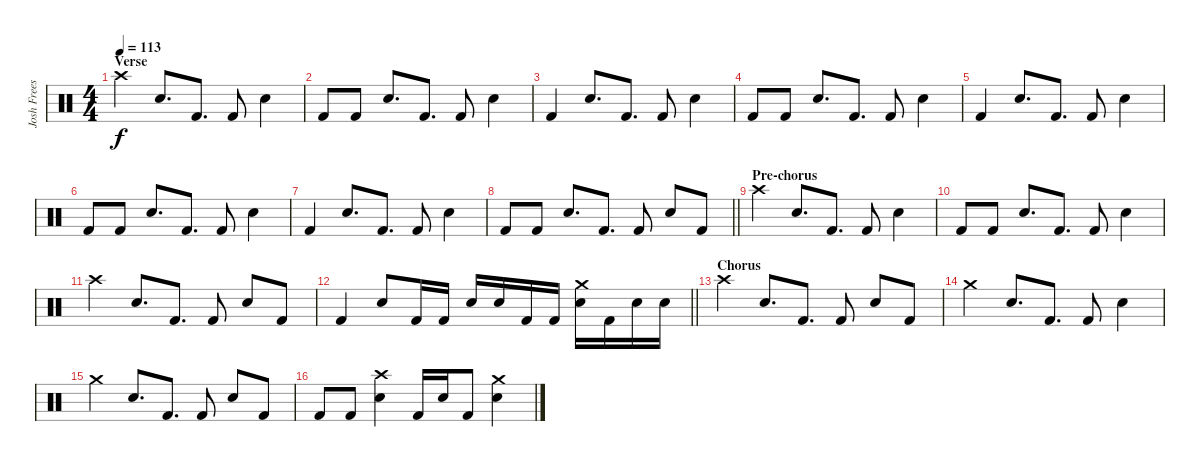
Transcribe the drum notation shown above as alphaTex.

\track ("Josh Freese (Studio Drummer)" "Josh Frees") {instrument percussion}
\staff {score}
\articulation defaults
\ts (4 4)
\section ("" "Verse")
\tempo 113
\clef neutral
\ks c "Crash high (hit)".4{dy f} "Electric Snare (hit)".8{d} "Kick (hit) 2".8{d} "Kick (hit) 2".8 "Electric Snare (hit)".4
|
"Kick (hit) 2".8 "Kick (hit) 2".8 "Electric Snare (hit)".8{d} "Kick (hit) 2".8{d} "Kick (hit) 2".8 "Electric Snare (hit)".4 |
"Kick (hit) 2".4 "Electric Snare (hit)".8{d} "Kick (hit) 2".8{d} "Kick (hit) 2".8 "Electric Snare (hit)".4 |
"Kick (hit) 2".8 "Kick (hit) 2".8 "Electric Snare (hit)".8{d} "Kick (hit) 2".8{d} "Kick (hit) 2".8 "Electric Snare (hit)".4 |
"Kick (hit) 2".4 "Electric Snare (hit)".8{d} "Kick (hit) 2".8{d} "Kick (hit) 2".8 "Electric Snare (hit)".4 |
"Kick (hit) 2".8 "Kick (hit) 2".8 "Electric Snare (hit)".8{d} "Kick (hit) 2".8{d} "Kick (hit) 2".8 "Electric Snare (hit)".4 |
"Kick (hit) 2".4 "Electric Snare (hit)".8{d} "Kick (hit) 2".8{d} "Kick (hit) 2".8 "Electric Snare (hit)".4 |
\barLineRight lightlight "Kick (hit) 2".8 "Kick (hit) 2".8 "Electric Snare (hit)".8{d} "Kick (hit) 2".8{d} "Kick (hit) 2".8 "Electric Snare (hit)".8 "Kick (hit) 2".8
|
\section ("" "Pre-chorus")
"Crash high (hit)".4{volume 13} "Electric Snare (hit)".8{d} "Kick (hit) 2".8{d} "Kick (hit) 2".8 "Electric Snare (hit)".4 |
"Kick (hit) 2".8 "Kick (hit) 2".8 "Electric Snare (hit)".8{d} "Kick (hit) 2".8{d} "Kick (hit) 2".8 "Electric Snare (hit)".4 |
"Crash high (hit)".4 "Electric Snare (hit)".8{d} "Kick (hit) 2".8{d} "Kick (hit) 2".8 "Electric Snare (hit)".8 "Kick (hit) 2".8 |
\barLineRight lightlight "Kick (hit) 2".4 "Electric Snare (hit)".8 "Kick (hit) 2".16 "Kick (hit) 2".16 "Electric Snare (hit)".16 "Electric Snare (hit)".16 "Kick (hit) 2".16 "Kick (hit) 2".16
("Crash medium (hit)" "Electric Snare (hit)").16 "Kick (hit) 2".16 "Electric Snare (hit)".16 "Electric Snare (hit)".16 |
\section ("" "Chorus")
"Crash high (hit)".4 "Electric Snare (hit)".8{d} "Kick (hit) 2".8{d} "Kick (hit) 2".8 "Electric Snare (hit)".8 "Kick (hit) 2".8 |
"Crash medium (hit)".4 "Electric Snare (hit)".8{d} "Kick (hit) 2".8{d} "Kick (hit) 2".8 "Electric Snare (hit)".4 |
"Crash medium (hit)".4 "Electric Snare (hit)".8{d} "Kick (hit) 2".8{d} "Kick (hit) 2".8 "Electric Snare (hit)".8 "Kick (hit) 2".8 |
"Kick (hit) 2".8 "Kick (hit) 2".8 ("Crash high (hit)" "Electric Snare (hit)").4 "Kick (hit) 2".16 "Electric Snare (hit)".16 "Kick (hit) 2".8 ("Crash medium (hit)" "Electric Snare (hit)").4
